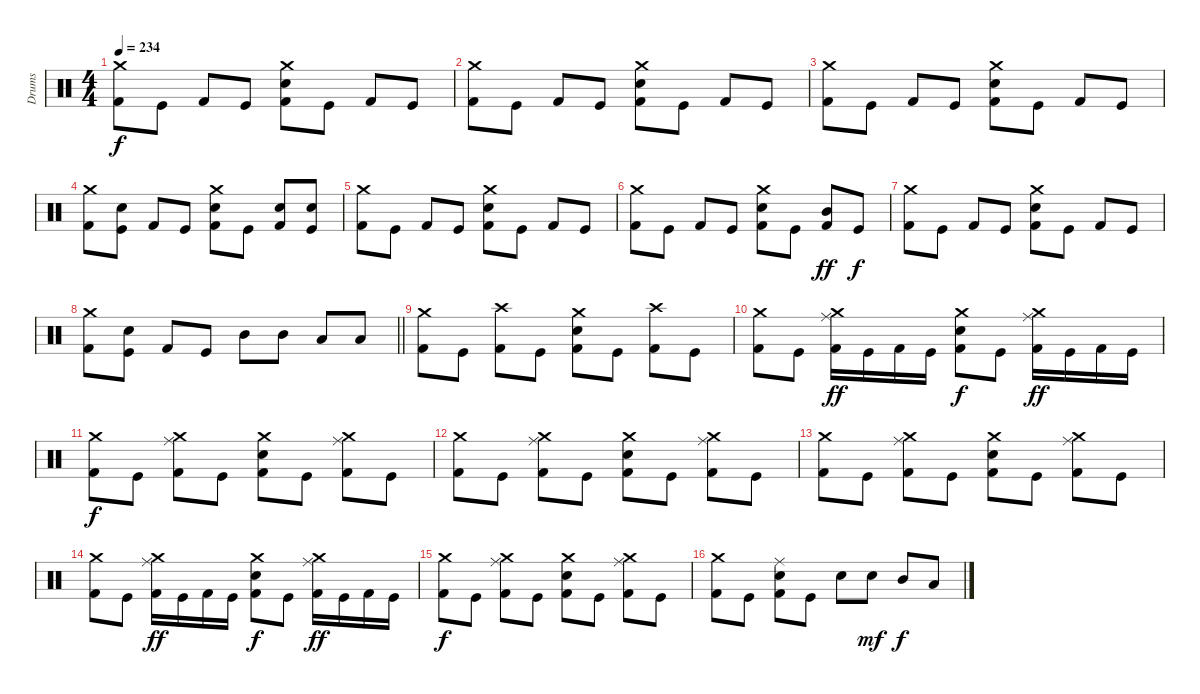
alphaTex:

\track ("Drums" "Drums") {instrument percussion}
\staff {score}
\articulation defaults
\ts (4 4)
\tempo 234
\clef neutral
\ks c
("Crash medium (hit)" "Kick (hit) 2").8{dy f} "Kick (hit)".8 "Kick (hit) 2".8 "Kick (hit)".8 ("Crash medium (hit)" "Snare (hit) 2" "Kick (hit) 2").8 "Kick (hit)".8 "Kick (hit) 2".8 "Kick (hit)".8 |
("Crash medium (hit)" "Kick (hit) 2").8 "Kick (hit)".8 "Kick (hit) 2".8 "Kick (hit)".8 ("Crash medium (hit)" "Snare (hit) 2" "Kick (hit) 2").8 "Kick (hit)".8 "Kick (hit) 2".8 "Kick (hit)".8 |
("Crash medium (hit)" "Kick (hit) 2").8 "Kick (hit)".8 "Kick (hit) 2".8 "Kick (hit)".8 ("Crash medium (hit)" "Snare (hit) 2" "Kick (hit) 2").8 "Kick (hit)".8 "Kick (hit) 2".8 "Kick (hit)".8 |
("Crash medium (hit)" "Kick (hit) 2").8 ("Snare (hit) 2" "Kick (hit)").8 "Kick (hit) 2".8 "Kick (hit)".8 ("Crash medium (hit)" "Snare (hit) 2" "Kick (hit) 2").8 "Kick (hit)".8 ("Snare (hit) 2" "Kick (hit) 2").8 ("Snare (hit) 2" "Kick (hit)").8 |
("Crash medium (hit)" "Kick (hit) 2").8 "Kick (hit)".8 "Kick (hit) 2".8 "Kick (hit)".8 ("Crash medium (hit)" "Snare (hit) 2" "Kick (hit) 2").8 "Kick (hit)".8 "Kick (hit) 2".8 "Kick (hit)".8 |
("Crash medium (hit)" "Kick (hit) 2").8 "Kick (hit)".8 "Kick (hit) 2".8 "Kick (hit)".8 ("Crash medium (hit)" "Snare (hit) 2" "Kick (hit) 2").8 "Kick (hit)".8 ("Mid Tom (hit)" "Kick (hit) 2").8{dy ff} "Kick (hit)".8{dy f} |
("Crash medium (hit)" "Kick (hit) 2").8 "Kick (hit)".8 "Kick (hit) 2".8 "Kick (hit)".8 ("Crash medium (hit)" "Snare (hit) 2" "Kick (hit) 2").8 "Kick (hit)".8 "Kick (hit) 2".8 "Kick (hit)".8 |
\barLineRight lightlight
("Crash medium (hit)" "Kick (hit) 2").8 ("Snare (hit) 2" "Kick (hit)").8 "Kick (hit) 2".8 "Kick (hit)".8 "Mid Tom (hit)".8 "Mid Tom (hit)".8 "Low Tom (hit)".8 "Low Tom (hit)".8 |
("Crash medium (hit)" "Kick (hit) 2").8 "Kick (hit)".8 ("Crash high (hit)" "Kick (hit) 2").8 "Kick (hit)".8 ("Crash medium (hit)" "Snare (hit) 2" "Kick (hit) 2").8 "Kick (hit)".8 ("Crash high (hit)" "Kick (hit) 2").8 "Kick (hit)".8 |
("Crash medium (hit)" "Kick (hit) 2").8 "Kick (hit)".8 ("Crash medium (hit)" "Ride (middle)" "Kick (hit) 2").16{dy ff} "Kick (hit)".16 "Kick (hit) 2".16 "Kick (hit)".16 ("Crash medium (hit)" "Snare (hit) 2" "Kick (hit) 2").8{dy f} "Kick (hit)".8 ("Crash medium (hit)" "Ride (middle)" "Kick (hit) 2").16{dy ff} "Kick (hit)".16 "Kick (hit) 2".16 "Kick (hit)".16 |
("Crash medium (hit)" "Kick (hit) 2").8{dy f} "Kick (hit)".8 ("Crash medium (hit)" "Ride (middle)" "Kick (hit) 2").8 "Kick (hit)".8 ("Crash medium (hit)" "Snare (hit) 2" "Kick (hit) 2").8 "Kick (hit)".8 ("Crash medium (hit)" "Ride (middle)" "Kick (hit) 2").8 "Kick (hit)".8 |
("Crash medium (hit)" "Kick (hit) 2").8 "Kick (hit)".8 ("Crash medium (hit)" "Ride (middle)" "Kick (hit) 2").8 "Kick (hit)".8 ("Crash medium (hit)" "Snare (hit) 2" "Kick (hit) 2").8 "Kick (hit)".8 ("Crash medium (hit)" "Ride (middle)" "Kick (hit) 2").8 "Kick (hit)".8 |
("Crash medium (hit)" "Kick (hit) 2").8 "Kick (hit)".8 ("Crash medium (hit)" "Ride (middle)" "Kick (hit) 2").8 "Kick (hit)".8 ("Crash medium (hit)" "Snare (hit) 2" "Kick (hit) 2").8 "Kick (hit)".8 ("Crash medium (hit)" "Ride (middle)" "Kick (hit) 2").8 "Kick (hit)".8 |
("Crash medium (hit)" "Kick (hit) 2").8 "Kick (hit)".8 ("Crash medium (hit)" "Ride (middle)" "Kick (hit) 2").16{dy ff} "Kick (hit)".16 "Kick (hit) 2".16 "Kick (hit)".16 ("Crash medium (hit)" "Snare (hit) 2" "Kick (hit) 2").8{dy f} "Kick (hit)".8 ("Crash medium (hit)" "Ride (middle)" "Kick (hit) 2").16{dy ff} "Kick (hit)".16 "Kick (hit) 2".16 "Kick (hit)".16 |
("Crash medium (hit)" "Kick (hit) 2").8{dy f} "Kick (hit)".8 ("Crash medium (hit)" "Ride (middle)" "Kick (hit) 2").8 "Kick (hit)".8 ("Crash medium (hit)" "Snare (hit) 2" "Kick (hit) 2").8 "Kick (hit)".8 ("Crash medium (hit)" "Ride (middle)" "Kick (hit) 2").8 "Kick (hit)".8 |
("Crash medium (hit)" "Kick (hit) 2").8 "Kick (hit)".8 ("Ride (middle)" "Snare (hit) 2" "Kick (hit) 2").8 "Kick (hit)".8 "Snare (hit) 2".8 "Snare (hit) 2".8{dy mf} "Mid Tom (hit)".8{dy f} "Low Tom (hit)".8
